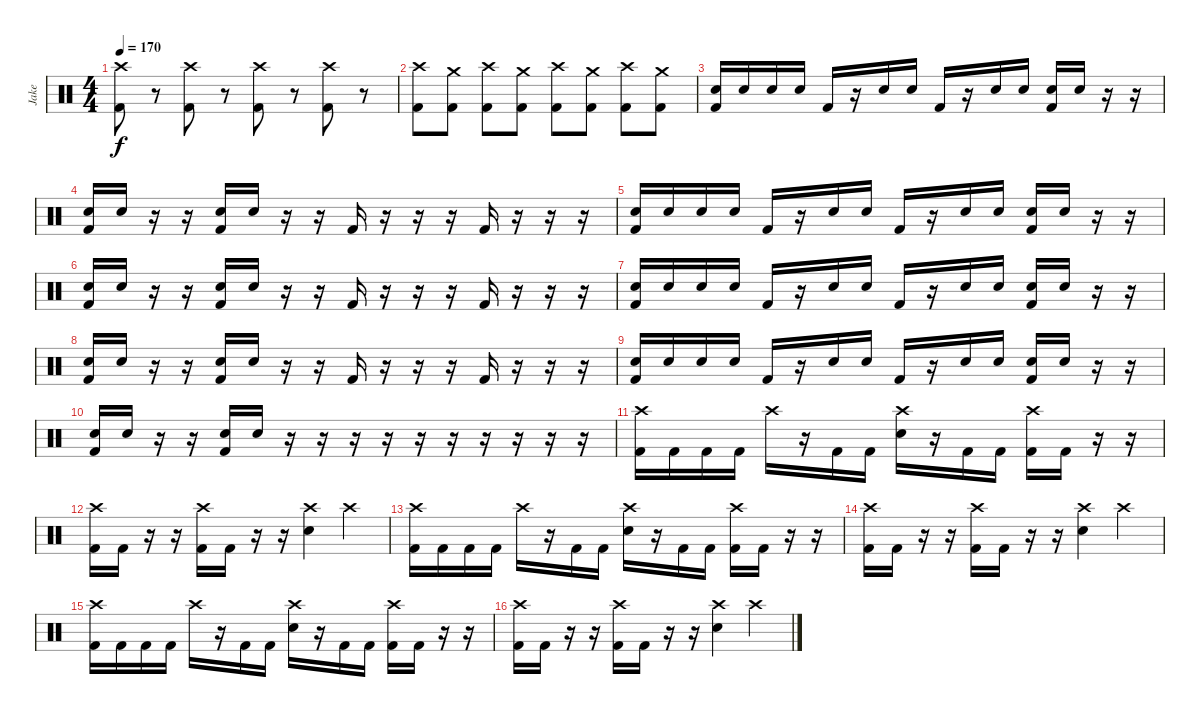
\track ("Jake" "Jake") {instrument percussion}
\staff {score}
\articulation defaults
\ts (4 4)
\tempo 170
\clef neutral
\ks c
("Crash high (hit)" "Kick (hit) 2").8{dy f} r.8 ("Crash high (hit)" "Kick (hit) 2").8 r.8 ("Crash high (hit)" "Kick (hit) 2").8 r.8 ("Crash high (hit)" "Kick (hit) 2").8 r.8 |
("Crash high (hit)" "Kick (hit) 2").8 ("Crash medium (hit)" "Kick (hit) 2").8 ("Crash high (hit)" "Kick (hit) 2").8 ("Crash medium (hit)" "Kick (hit) 2").8 ("Crash high (hit)" "Kick (hit) 2").8 ("Crash medium (hit)" "Kick (hit) 2").8 ("Crash high (hit)" "Kick (hit) 2").8 ("Crash medium (hit)" "Kick (hit) 2").8 |
("Electric Snare (hit)" "Kick (hit) 2").16 "Electric Snare (hit)".16 "Electric Snare (hit)".16 "Electric Snare (hit)".16 "Kick (hit) 2".16 r.16 "Electric Snare (hit)".16 "Electric Snare (hit)".16 "Kick (hit) 2".16 r.16 "Electric Snare (hit)".16 "Electric Snare (hit)".16 ("Electric Snare (hit)" "Kick (hit) 2").16 "Electric Snare (hit)".16 r.16 r.16 |
("Electric Snare (hit)" "Kick (hit) 2").16 "Electric Snare (hit)".16 r.16 r.16 ("Electric Snare (hit)" "Kick (hit) 2").16 "Electric Snare (hit)".16 r.16 r.16 "Kick (hit) 2".16 r.16 r.16 r.16 "Kick (hit) 2".16 r.16 r.16 r.16 |
("Electric Snare (hit)" "Kick (hit) 2").16 "Electric Snare (hit)".16 "Electric Snare (hit)".16 "Electric Snare (hit)".16 "Kick (hit) 2".16 r.16 "Electric Snare (hit)".16 "Electric Snare (hit)".16 "Kick (hit) 2".16 r.16 "Electric Snare (hit)".16 "Electric Snare (hit)".16 ("Electric Snare (hit)" "Kick (hit) 2").16 "Electric Snare (hit)".16 r.16 r.16 |
("Electric Snare (hit)" "Kick (hit) 2").16 "Electric Snare (hit)".16 r.16 r.16 ("Electric Snare (hit)" "Kick (hit) 2").16 "Electric Snare (hit)".16 r.16 r.16 "Kick (hit) 2".16 r.16 r.16 r.16 "Kick (hit) 2".16 r.16 r.16 r.16 |
("Electric Snare (hit)" "Kick (hit) 2").16 "Electric Snare (hit)".16 "Electric Snare (hit)".16 "Electric Snare (hit)".16 "Kick (hit) 2".16 r.16 "Electric Snare (hit)".16 "Electric Snare (hit)".16 "Kick (hit) 2".16 r.16 "Electric Snare (hit)".16 "Electric Snare (hit)".16 ("Electric Snare (hit)" "Kick (hit) 2").16 "Electric Snare (hit)".16 r.16 r.16 |
("Electric Snare (hit)" "Kick (hit) 2").16 "Electric Snare (hit)".16 r.16 r.16 ("Electric Snare (hit)" "Kick (hit) 2").16 "Electric Snare (hit)".16 r.16 r.16 "Kick (hit) 2".16 r.16 r.16 r.16 "Kick (hit) 2".16 r.16 r.16 r.16 |
("Electric Snare (hit)" "Kick (hit) 2").16 "Electric Snare (hit)".16 "Electric Snare (hit)".16 "Electric Snare (hit)".16 "Kick (hit) 2".16 r.16 "Electric Snare (hit)".16 "Electric Snare (hit)".16 "Kick (hit) 2".16 r.16 "Electric Snare (hit)".16 "Electric Snare (hit)".16 ("Electric Snare (hit)" "Kick (hit) 2").16 "Electric Snare (hit)".16 r.16 r.16 |
("Electric Snare (hit)" "Kick (hit) 2").16 "Electric Snare (hit)".16 r.16 r.16 ("Electric Snare (hit)" "Kick (hit) 2").16 "Electric Snare (hit)".16 r.16 r.16 r.16 r.16 r.16 r.16 r.16 r.16 r.16 r.16 |
("Crash high (hit)" "Kick (hit) 2").16 "Kick (hit) 2".16 "Kick (hit) 2".16 "Kick (hit) 2".16 "Crash high (hit)".16 r.16 "Kick (hit) 2".16 "Kick (hit) 2".16 ("Crash high (hit)" "Electric Snare (hit)").16 r.16 "Kick (hit) 2".16 "Kick (hit) 2".16 ("Crash high (hit)" "Kick (hit) 2").16 "Kick (hit) 2".16 r.16 r.16 |
("Crash high (hit)" "Kick (hit) 2").16 "Kick (hit) 2".16 r.16 r.16 ("Crash high (hit)" "Kick (hit) 2").16 "Kick (hit) 2".16 r.16 r.16 ("Crash high (hit)" "Electric Snare (hit)").4 "Crash high (hit)".4 |
("Crash high (hit)" "Kick (hit) 2").16 "Kick (hit) 2".16 "Kick (hit) 2".16 "Kick (hit) 2".16 "Crash high (hit)".16 r.16 "Kick (hit) 2".16 "Kick (hit) 2".16 ("Crash high (hit)" "Electric Snare (hit)").16 r.16 "Kick (hit) 2".16 "Kick (hit) 2".16 ("Crash high (hit)" "Kick (hit) 2").16 "Kick (hit) 2".16 r.16 r.16 |
("Crash high (hit)" "Kick (hit) 2").16 "Kick (hit) 2".16 r.16 r.16 ("Crash high (hit)" "Kick (hit) 2").16 "Kick (hit) 2".16 r.16 r.16 ("Crash high (hit)" "Electric Snare (hit)").4 "Crash high (hit)".4 |
("Crash high (hit)" "Kick (hit) 2").16 "Kick (hit) 2".16 "Kick (hit) 2".16 "Kick (hit) 2".16 "Crash high (hit)".16 r.16 "Kick (hit) 2".16 "Kick (hit) 2".16 ("Crash high (hit)" "Electric Snare (hit)").16 r.16 "Kick (hit) 2".16 "Kick (hit) 2".16 ("Crash high (hit)" "Kick (hit) 2").16 "Kick (hit) 2".16 r.16 r.16 |
("Crash high (hit)" "Kick (hit) 2").16 "Kick (hit) 2".16 r.16 r.16 ("Crash high (hit)" "Kick (hit) 2").16 "Kick (hit) 2".16 r.16 r.16 ("Crash high (hit)" "Electric Snare (hit)").4 "Crash high (hit)".4
